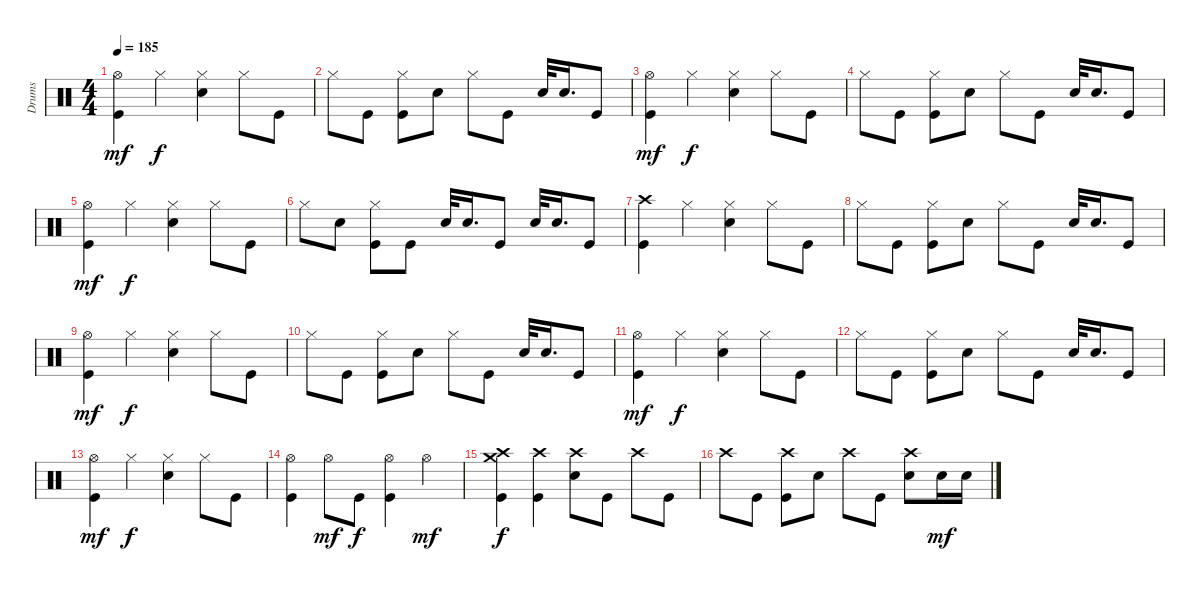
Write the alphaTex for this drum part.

\track ("Drums" "Drums") {instrument percussion}
\staff {score}
\articulation defaults
\ts (4 4)
\tempo 185
\clef neutral
\ks c
("Kick (hit)" "Hi-Hat (open)").4{dy mf} "Hi-Hat (closed)".4{dy f} ("Electric Snare (hit)" "Hi-Hat (closed)").4 "Hi-Hat (closed)".8 "Kick (hit)".8 |
"Hi-Hat (closed)".8 "Kick (hit)".8 ("Kick (hit)" "Hi-Hat (closed)").8 "Electric Snare (hit)".8 "Hi-Hat (closed)".8 "Kick (hit)".8 "Electric Snare (hit)".32 "Electric Snare (hit)".16{d} "Kick (hit)".8 |
("Kick (hit)" "Hi-Hat (open)").4{dy mf} "Hi-Hat (closed)".4{dy f} ("Electric Snare (hit)" "Hi-Hat (closed)").4 "Hi-Hat (closed)".8 "Kick (hit)".8 |
"Hi-Hat (closed)".8 "Kick (hit)".8 ("Kick (hit)" "Hi-Hat (closed)").8 "Electric Snare (hit)".8 "Hi-Hat (closed)".8 "Kick (hit)".8 "Electric Snare (hit)".32 "Electric Snare (hit)".16{d} "Kick (hit)".8 |
("Kick (hit)" "Hi-Hat (open)").4{dy mf} "Hi-Hat (closed)".4{dy f} ("Electric Snare (hit)" "Hi-Hat (closed)").4 "Hi-Hat (closed)".8 "Kick (hit)".8 |
"Hi-Hat (closed)".8 "Electric Snare (hit)".8 ("Kick (hit)" "Hi-Hat (closed)").8 "Kick (hit)".8 "Electric Snare (hit)".32 "Electric Snare (hit)".16{d} "Kick (hit)".8 "Electric Snare (hit)".32 "Electric Snare (hit)".16{d} "Kick (hit)".8 |
("Kick (hit)" "Crash high (hit)").4 "Hi-Hat (closed)".4 ("Electric Snare (hit)" "Hi-Hat (closed)").4 "Hi-Hat (closed)".8 "Kick (hit)".8 |
"Hi-Hat (closed)".8 "Kick (hit)".8 ("Kick (hit)" "Hi-Hat (closed)").8 "Electric Snare (hit)".8 "Hi-Hat (closed)".8 "Kick (hit)".8 "Electric Snare (hit)".32 "Electric Snare (hit)".16{d} "Kick (hit)".8 |
("Kick (hit)" "Hi-Hat (open)").4{dy mf} "Hi-Hat (closed)".4{dy f} ("Electric Snare (hit)" "Hi-Hat (closed)").4 "Hi-Hat (closed)".8 "Kick (hit)".8 |
"Hi-Hat (closed)".8 "Kick (hit)".8 ("Kick (hit)" "Hi-Hat (closed)").8 "Electric Snare (hit)".8 "Hi-Hat (closed)".8 "Kick (hit)".8 "Electric Snare (hit)".32 "Electric Snare (hit)".16{d} "Kick (hit)".8 |
("Kick (hit)" "Hi-Hat (open)").4{dy mf} "Hi-Hat (closed)".4{dy f} ("Electric Snare (hit)" "Hi-Hat (closed)").4 "Hi-Hat (closed)".8 "Kick (hit)".8 |
"Hi-Hat (closed)".8 "Kick (hit)".8 ("Kick (hit)" "Hi-Hat (closed)").8 "Electric Snare (hit)".8 "Hi-Hat (closed)".8 "Kick (hit)".8 "Electric Snare (hit)".32 "Electric Snare (hit)".16{d} "Kick (hit)".8 |
("Kick (hit)" "Hi-Hat (open)").4{dy mf} "Hi-Hat (closed)".4{dy f} ("Electric Snare (hit)" "Hi-Hat (closed)").4 "Hi-Hat (closed)".8 "Kick (hit)".8 |
("Kick (hit)" "Hi-Hat (open)").4 "Hi-Hat (open)".8{dy mf} "Kick (hit)".8{dy f} ("Kick (hit)" "Hi-Hat (open)").4 "Hi-Hat (open)".4{dy mf} |
("Kick (hit)" "Crash high (hit)" "Crash medium (hit)").4{dy f volume 8} ("Kick (hit)" "Crash high (hit)").4 ("Electric Snare (hit)" "Crash high (hit)").8 "Kick (hit)".8 "Crash high (hit)".8 "Kick (hit)".8 |
"Crash high (hit)".8 "Kick (hit)".8 ("Kick (hit)" "Crash high (hit)").8 "Electric Snare (hit)".8 "Crash high (hit)".8 "Kick (hit)".8 ("Electric Snare (hit)" "Crash high (hit)").8 "Electric Snare (hit)".16{dy mf} "Electric Snare (hit)".16
